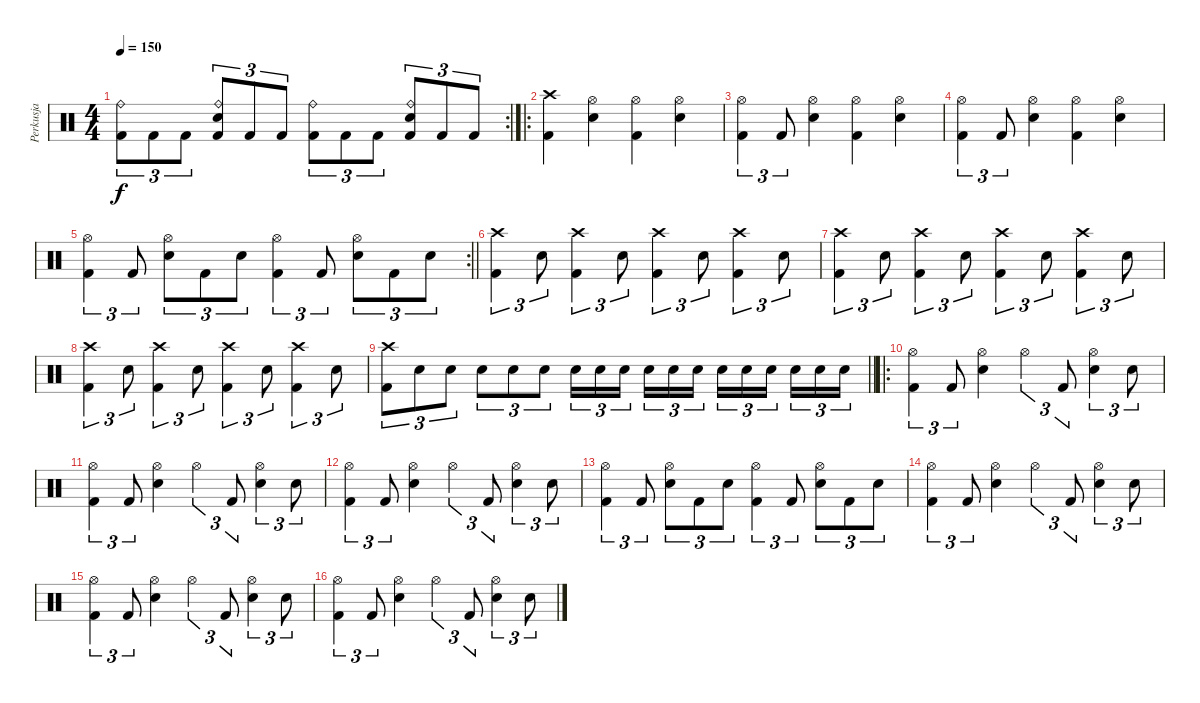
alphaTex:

\track ("Perkusja" "Perkusja") {instrument percussion}
\staff {score}
\articulation defaults
\rc 2
\ts (4 4)
\tempo 150
\clef neutral
\ks c
("Kick (hit) 2" "Ride (bell)").8{tu (3 2) dy f} "Kick (hit) 2".8{tu (3 2)} "Kick (hit) 2".8{tu (3 2)} ("Kick (hit) 2" "Snare (hit) 2" "Ride (bell)").8{tu (3 2)} "Kick (hit) 2".8{tu (3 2)} "Kick (hit) 2".8{tu (3 2)} ("Kick (hit) 2" "Ride (bell)").8{tu (3 2)} "Kick (hit) 2".8{tu (3 2)} "Kick (hit) 2".8{tu (3 2)} ("Kick (hit) 2" "Snare (hit) 2" "Ride (bell)").8{tu (3 2)} "Kick (hit) 2".8{tu (3 2)} "Kick (hit) 2".8{tu (3 2)} |
\ro
("Kick (hit) 2" "Crash high (hit)").4 ("Snare (hit) 2" "Hi-Hat (open)").4 ("Kick (hit) 2" "Hi-Hat (open)").4 ("Snare (hit) 2" "Hi-Hat (open)").4 |
("Kick (hit) 2" "Hi-Hat (open)").4{tu (3 2)} "Kick (hit) 2".8{tu (3 2)} ("Snare (hit) 2" "Hi-Hat (open)").4 ("Kick (hit) 2" "Hi-Hat (open)").4 ("Snare (hit) 2" "Hi-Hat (open)").4 |
("Kick (hit) 2" "Hi-Hat (open)").4{tu (3 2)} "Kick (hit) 2".8{tu (3 2)} ("Snare (hit) 2" "Hi-Hat (open)").4 ("Kick (hit) 2" "Hi-Hat (open)").4 ("Snare (hit) 2" "Hi-Hat (open)").4 |
\rc 2
\barLineRight lightlight
("Kick (hit) 2" "Hi-Hat (open)").4{tu (3 2)} "Kick (hit) 2".8{tu (3 2)} ("Snare (hit) 2" "Hi-Hat (open)").8{tu (3 2)} "Kick (hit) 2".8{tu (3 2)} "Snare (hit) 2".8{tu (3 2)} ("Kick (hit) 2" "Hi-Hat (open)").4{tu (3 2)} "Kick (hit) 2".8{tu (3 2)} ("Snare (hit) 2" "Hi-Hat (open)").8{tu (3 2)} "Kick (hit) 2".8{tu (3 2)} "Snare (hit) 2".8{tu (3 2)} |
("Kick (hit) 2" "Crash high (hit)").4{tu (3 2)} "Snare (hit) 2".8{tu (3 2)} ("Kick (hit) 2" "Crash high (hit)").4{tu (3 2)} "Snare (hit) 2".8{tu (3 2)} ("Kick (hit) 2" "Crash high (hit)").4{tu (3 2)} "Snare (hit) 2".8{tu (3 2)} ("Kick (hit) 2" "Crash high (hit)").4{tu (3 2)} "Snare (hit) 2".8{tu (3 2)} |
("Kick (hit) 2" "Crash high (hit)").4{tu (3 2)} "Snare (hit) 2".8{tu (3 2)} ("Kick (hit) 2" "Crash high (hit)").4{tu (3 2)} "Snare (hit) 2".8{tu (3 2)} ("Kick (hit) 2" "Crash high (hit)").4{tu (3 2)} "Snare (hit) 2".8{tu (3 2)} ("Kick (hit) 2" "Crash high (hit)").4{tu (3 2)} "Snare (hit) 2".8{tu (3 2)} |
("Kick (hit) 2" "Crash high (hit)").4{tu (3 2)} "Snare (hit) 2".8{tu (3 2)} ("Kick (hit) 2" "Crash high (hit)").4{tu (3 2)} "Snare (hit) 2".8{tu (3 2)} ("Kick (hit) 2" "Crash high (hit)").4{tu (3 2)} "Snare (hit) 2".8{tu (3 2)} ("Kick (hit) 2" "Crash high (hit)").4{tu (3 2)} "Snare (hit) 2".8{tu (3 2)} |
\barLineRight lightlight
("Kick (hit) 2" "Crash high (hit)").8{tu (3 2)} "Snare (hit) 2".8{tu (3 2)} "Snare (hit) 2".8{tu (3 2)} "Snare (hit) 2".8{tu (3 2)} "Snare (hit) 2".8{tu (3 2)} "Snare (hit) 2".8{tu (3 2)} "Snare (hit) 2".16{tu (3 2)} "Snare (hit) 2".16{tu (3 2)} "Snare (hit) 2".16{tu (3 2) beam splitsecondary} "Snare (hit) 2".16{tu (3 2)} "Snare (hit) 2".16{tu (3 2)} "Snare (hit) 2".16{tu (3 2)} "Snare (hit) 2".16{tu (3 2)} "Snare (hit) 2".16{tu (3 2)} "Snare (hit) 2".16{tu (3 2) beam splitsecondary} "Snare (hit) 2".16{tu (3 2)} "Snare (hit) 2".16{tu (3 2)} "Snare (hit) 2".16{tu (3 2)} |
\ro
("Kick (hit) 2" "Hi-Hat (open)").4{tu (3 2)} "Kick (hit) 2".8{tu (3 2)} ("Snare (hit) 2" "Hi-Hat (open)").4 "Hi-Hat (open)".4{tu (3 2)} "Kick (hit) 2".8{tu (3 2)} ("Snare (hit) 2" "Hi-Hat (open)").4{tu (3 2)} "Snare (hit) 2".8{tu (3 2)} |
("Kick (hit) 2" "Hi-Hat (open)").4{tu (3 2)} "Kick (hit) 2".8{tu (3 2)} ("Snare (hit) 2" "Hi-Hat (open)").4 "Hi-Hat (open)".4{tu (3 2)} "Kick (hit) 2".8{tu (3 2)} ("Snare (hit) 2" "Hi-Hat (open)").4{tu (3 2)} "Snare (hit) 2".8{tu (3 2)} |
("Kick (hit) 2" "Hi-Hat (open)").4{tu (3 2)} "Kick (hit) 2".8{tu (3 2)} ("Snare (hit) 2" "Hi-Hat (open)").4 "Hi-Hat (open)".4{tu (3 2)} "Kick (hit) 2".8{tu (3 2)} ("Snare (hit) 2" "Hi-Hat (open)").4{tu (3 2)} "Snare (hit) 2".8{tu (3 2)} |
("Kick (hit) 2" "Hi-Hat (open)").4{tu (3 2)} "Kick (hit) 2".8{tu (3 2)} ("Snare (hit) 2" "Hi-Hat (open)").8{tu (3 2)} "Kick (hit) 2".8{tu (3 2)} "Snare (hit) 2".8{tu (3 2)} ("Kick (hit) 2" "Hi-Hat (open)").4{tu (3 2)} "Kick (hit) 2".8{tu (3 2)} ("Snare (hit) 2" "Hi-Hat (open)").8{tu (3 2)} "Kick (hit) 2".8{tu (3 2)} "Snare (hit) 2".8{tu (3 2)} |
("Kick (hit) 2" "Hi-Hat (open)").4{tu (3 2)} "Kick (hit) 2".8{tu (3 2)} ("Snare (hit) 2" "Hi-Hat (open)").4 "Hi-Hat (open)".4{tu (3 2)} "Kick (hit) 2".8{tu (3 2)} ("Snare (hit) 2" "Hi-Hat (open)").4{tu (3 2)} "Snare (hit) 2".8{tu (3 2)} |
("Kick (hit) 2" "Hi-Hat (open)").4{tu (3 2)} "Kick (hit) 2".8{tu (3 2)} ("Snare (hit) 2" "Hi-Hat (open)").4 "Hi-Hat (open)".4{tu (3 2)} "Kick (hit) 2".8{tu (3 2)} ("Snare (hit) 2" "Hi-Hat (open)").4{tu (3 2)} "Snare (hit) 2".8{tu (3 2)} |
("Kick (hit) 2" "Hi-Hat (open)").4{tu (3 2)} "Kick (hit) 2".8{tu (3 2)} ("Snare (hit) 2" "Hi-Hat (open)").4 "Hi-Hat (open)".4{tu (3 2)} "Kick (hit) 2".8{tu (3 2)} ("Snare (hit) 2" "Hi-Hat (open)").4{tu (3 2)} "Snare (hit) 2".8{tu (3 2)}
